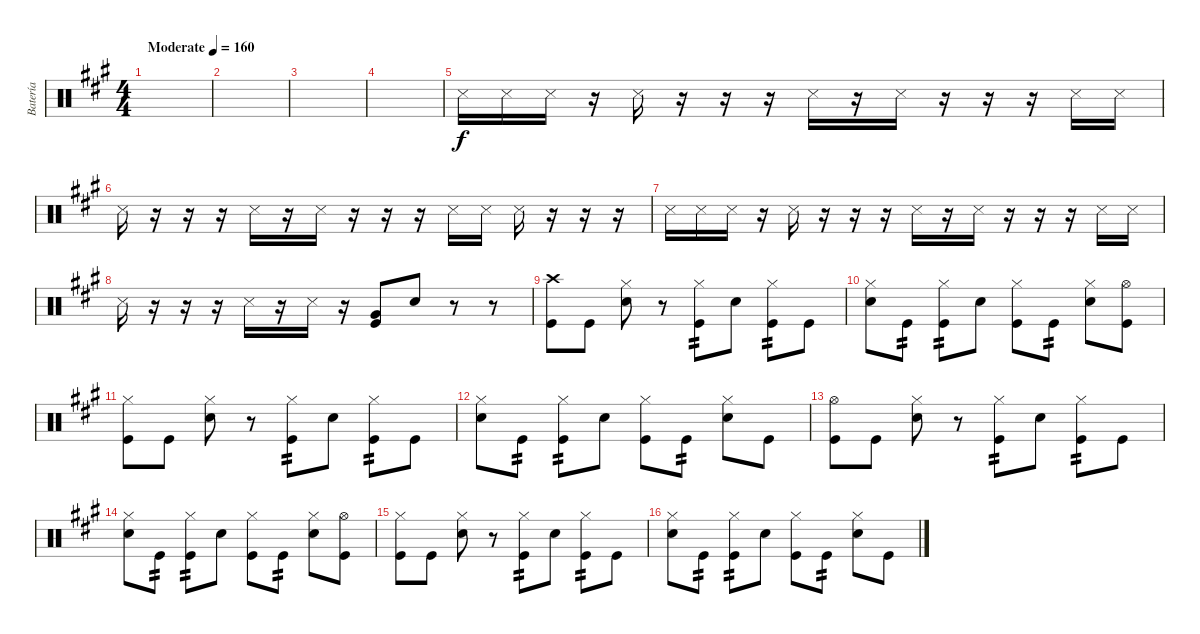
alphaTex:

\track ("Batería" "Batería") {instrument percussion}
\staff {score}
\articulation defaults
\ts (4 4)
\tempo (160 "Moderate")
\clef neutral
\ks a
|
|
|
|
"Snare (side stick) 3".16 "Snare (side stick) 3".16 "Snare (side stick) 3".16 r.16 "Snare (side stick) 3".16 r.16 r.16 r.16 "Snare (side stick) 3".16 r.16 "Snare (side stick) 3".16 r.16 r.16 r.16 "Snare (side stick) 3".16 "Snare (side stick) 3".16 |
"Snare (side stick) 3".16 r.16 r.16 r.16 "Snare (side stick) 3".16 r.16 "Snare (side stick) 3".16 r.16 r.16 r.16 "Snare (side stick) 3".16 "Snare (side stick) 3".16 "Snare (side stick) 3".16 r.16 r.16 r.16 |
"Snare (side stick) 3".16 "Snare (side stick) 3".16 "Snare (side stick) 3".16 r.16 "Snare (side stick) 3".16 r.16 r.16 r.16 "Snare (side stick) 3".16 r.16 "Snare (side stick) 3".16 r.16 r.16 r.16 "Snare (side stick) 3".16 "Snare (side stick) 3".16 |
"Snare (side stick) 3".16 r.16 r.16 r.16 "Snare (side stick) 3".16 r.16 "Snare (side stick) 3".16 r.16 ("Very Low Tom (hit)" "Kick (hit)").8 "Electric Snare (hit)".8 r.8 r.8 |
("Crash high (hit)" "Kick (hit)").8 "Kick (hit)".8 ("Hi-Hat (closed)" "Electric Snare (hit)").8 r.8 ("Hi-Hat (closed)" "Kick (hit)").8{tp 2} "Electric Snare (hit)".8 ("Hi-Hat (closed)" "Kick (hit)").8{tp 2} "Kick (hit)".8 |
("Hi-Hat (closed)" "Electric Snare (hit)").8 "Kick (hit)".8{tp 2} ("Hi-Hat (closed)" "Kick (hit)").8{tp 2} "Electric Snare (hit)".8 ("Hi-Hat (closed)" "Kick (hit)").8 "Kick (hit)".8{tp 2} ("Hi-Hat (closed)" "Electric Snare (hit)").8 ("Hi-Hat (open)" "Kick (hit)").8 |
("Hi-Hat (closed)" "Kick (hit)").8 "Kick (hit)".8 ("Hi-Hat (closed)" "Electric Snare (hit)").8 r.8 ("Hi-Hat (closed)" "Kick (hit)").8{tp 2} "Electric Snare (hit)".8 ("Hi-Hat (closed)" "Kick (hit)").8{tp 2} "Kick (hit)".8 |
("Hi-Hat (closed)" "Electric Snare (hit)").8 "Kick (hit)".8{tp 2} ("Hi-Hat (closed)" "Kick (hit)").8{tp 2} "Electric Snare (hit)".8 ("Hi-Hat (closed)" "Kick (hit)").8 "Kick (hit)".8{tp 2} ("Hi-Hat (closed)" "Electric Snare (hit)").8 "Kick (hit)".8 |
("Hi-Hat (open)" "Kick (hit)").8 "Kick (hit)".8 ("Hi-Hat (closed)" "Electric Snare (hit)").8 r.8 ("Hi-Hat (closed)" "Kick (hit)").8{tp 2} "Electric Snare (hit)".8 ("Hi-Hat (closed)" "Kick (hit)").8{tp 2} "Kick (hit)".8 |
("Hi-Hat (closed)" "Electric Snare (hit)").8 "Kick (hit)".8{tp 2} ("Hi-Hat (closed)" "Kick (hit)").8{tp 2} "Electric Snare (hit)".8 ("Hi-Hat (closed)" "Kick (hit)").8 "Kick (hit)".8{tp 2} ("Hi-Hat (closed)" "Electric Snare (hit)").8 ("Hi-Hat (open)" "Kick (hit)").8 |
("Hi-Hat (closed)" "Kick (hit)").8 "Kick (hit)".8 ("Hi-Hat (closed)" "Electric Snare (hit)").8 r.8 ("Hi-Hat (closed)" "Kick (hit)").8{tp 2} "Electric Snare (hit)".8 ("Hi-Hat (closed)" "Kick (hit)").8{tp 2} "Kick (hit)".8 |
("Hi-Hat (closed)" "Electric Snare (hit)").8 "Kick (hit)".8{tp 2} ("Hi-Hat (closed)" "Kick (hit)").8{tp 2} "Electric Snare (hit)".8 ("Hi-Hat (closed)" "Kick (hit)").8 "Kick (hit)".8{tp 2} ("Hi-Hat (closed)" "Electric Snare (hit)").8 "Kick (hit)".8
